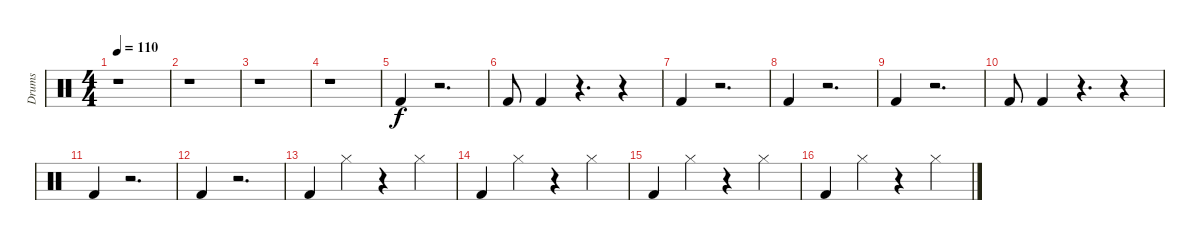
\track ("Drums" "Drums") {instrument percussion}
\staff {score}
\articulation defaults
\ts (4 4)
\tempo 110
\clef neutral
\ks c
r.1{dy f} |
r.1 |
r.1 |
r.1 |
"Kick (hit) 2".4 r.2{d} |
"Kick (hit) 2".8 "Kick (hit) 2".4 r.4{d} r.4 |
"Kick (hit) 2".4 r.2{d} |
"Kick (hit) 2".4 r.2{d} |
"Kick (hit) 2".4 r.2{d} |
"Kick (hit) 2".8 "Kick (hit) 2".4 r.4{d} r.4 |
"Kick (hit) 2".4 r.2{d} |
"Kick (hit) 2".4 r.2{d} |
"Kick (hit) 2".4 "Hi-Hat (closed)".4 r.4 "Hi-Hat (closed)".4 |
"Kick (hit) 2".4 "Hi-Hat (closed)".4 r.4 "Hi-Hat (closed)".4 |
"Kick (hit) 2".4 "Hi-Hat (closed)".4 r.4 "Hi-Hat (closed)".4 |
"Kick (hit) 2".4 "Hi-Hat (closed)".4 r.4 "Hi-Hat (closed)".4
